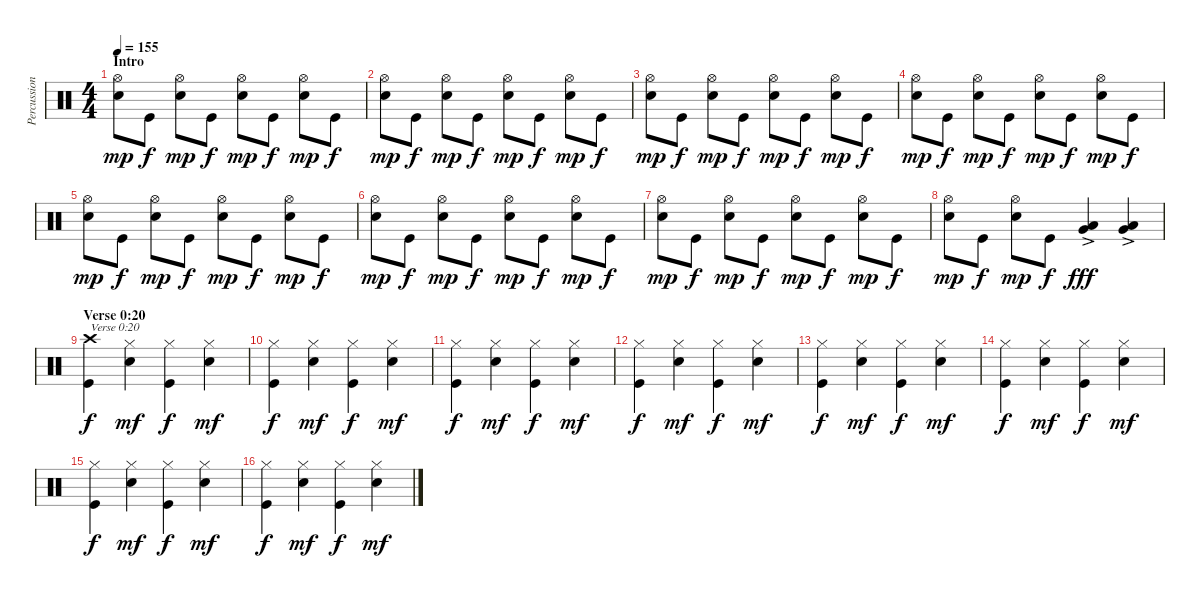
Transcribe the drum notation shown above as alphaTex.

\track ("Percussion" "Percussion") {instrument percussion}
\staff {score}
\articulation defaults
\ts (4 4)
\section ("" "Intro")
\tempo 155
\clef neutral
\ks c
("Electric Snare (hit)" "Hi-Hat (open)").8{dy mp} "Kick (hit)".8{dy f} ("Electric Snare (hit)" "Hi-Hat (open)").8{dy mp} "Kick (hit)".8{dy f} ("Electric Snare (hit)" "Hi-Hat (open)").8{dy mp} "Kick (hit)".8{dy f} ("Electric Snare (hit)" "Hi-Hat (open)").8{dy mp} "Kick (hit)".8{dy f} |
("Electric Snare (hit)" "Hi-Hat (open)").8{dy mp} "Kick (hit)".8{dy f} ("Electric Snare (hit)" "Hi-Hat (open)").8{dy mp} "Kick (hit)".8{dy f} ("Electric Snare (hit)" "Hi-Hat (open)").8{dy mp} "Kick (hit)".8{dy f} ("Electric Snare (hit)" "Hi-Hat (open)").8{dy mp} "Kick (hit)".8{dy f} |
("Electric Snare (hit)" "Hi-Hat (open)").8{dy mp} "Kick (hit)".8{dy f} ("Electric Snare (hit)" "Hi-Hat (open)").8{dy mp} "Kick (hit)".8{dy f} ("Electric Snare (hit)" "Hi-Hat (open)").8{dy mp} "Kick (hit)".8{dy f} ("Electric Snare (hit)" "Hi-Hat (open)").8{dy mp} "Kick (hit)".8{dy f} |
("Electric Snare (hit)" "Hi-Hat (open)").8{dy mp} "Kick (hit)".8{dy f} ("Electric Snare (hit)" "Hi-Hat (open)").8{dy mp} "Kick (hit)".8{dy f} ("Electric Snare (hit)" "Hi-Hat (open)").8{dy mp} "Kick (hit)".8{dy f} ("Electric Snare (hit)" "Hi-Hat (open)").8{dy mp} "Kick (hit)".8{dy f} |
("Electric Snare (hit)" "Hi-Hat (open)").8{dy mp} "Kick (hit)".8{dy f} ("Electric Snare (hit)" "Hi-Hat (open)").8{dy mp} "Kick (hit)".8{dy f} ("Electric Snare (hit)" "Hi-Hat (open)").8{dy mp} "Kick (hit)".8{dy f} ("Electric Snare (hit)" "Hi-Hat (open)").8{dy mp} "Kick (hit)".8{dy f} |
("Electric Snare (hit)" "Hi-Hat (open)").8{dy mp} "Kick (hit)".8{dy f} ("Electric Snare (hit)" "Hi-Hat (open)").8{dy mp} "Kick (hit)".8{dy f} ("Electric Snare (hit)" "Hi-Hat (open)").8{dy mp} "Kick (hit)".8{dy f} ("Electric Snare (hit)" "Hi-Hat (open)").8{dy mp} "Kick (hit)".8{dy f} |
("Electric Snare (hit)" "Hi-Hat (open)").8{dy mp} "Kick (hit)".8{dy f} ("Electric Snare (hit)" "Hi-Hat (open)").8{dy mp} "Kick (hit)".8{dy f} ("Electric Snare (hit)" "Hi-Hat (open)").8{dy mp} "Kick (hit)".8{dy f} ("Electric Snare (hit)" "Hi-Hat (open)").8{dy mp} "Kick (hit)".8{dy f} |
("Electric Snare (hit)" "Hi-Hat (open)").8{dy mp} "Kick (hit)".8{dy f} ("Electric Snare (hit)" "Hi-Hat (open)").8{dy mp} "Kick (hit)".8{dy f} ("Very Low Tom (hit)"{ac} "Low Tom (hit)"{ac}).4{dy fff} ("Very Low Tom (hit)"{ac} "Low Tom (hit)"{ac}).4 |
\section ("" "Verse 0:20")
("Kick (hit)" "Crash high (hit)").4{txt "Verse 0:20" dy f} ("Electric Snare (hit)" "Hi-Hat (closed)").4{dy mf} ("Kick (hit)" "Hi-Hat (closed)").4{dy f} ("Electric Snare (hit)" "Hi-Hat (closed)").4{dy mf} |
("Kick (hit)" "Hi-Hat (closed)").4{dy f} ("Electric Snare (hit)" "Hi-Hat (closed)").4{dy mf} ("Kick (hit)" "Hi-Hat (closed)").4{dy f} ("Electric Snare (hit)" "Hi-Hat (closed)").4{dy mf} |
("Kick (hit)" "Hi-Hat (closed)").4{dy f} ("Electric Snare (hit)" "Hi-Hat (closed)").4{dy mf} ("Kick (hit)" "Hi-Hat (closed)").4{dy f} ("Electric Snare (hit)" "Hi-Hat (closed)").4{dy mf} |
("Kick (hit)" "Hi-Hat (closed)").4{dy f} ("Electric Snare (hit)" "Hi-Hat (closed)").4{dy mf} ("Kick (hit)" "Hi-Hat (closed)").4{dy f} ("Electric Snare (hit)" "Hi-Hat (closed)").4{dy mf} |
("Kick (hit)" "Hi-Hat (closed)").4{dy f} ("Electric Snare (hit)" "Hi-Hat (closed)").4{dy mf} ("Kick (hit)" "Hi-Hat (closed)").4{dy f} ("Electric Snare (hit)" "Hi-Hat (closed)").4{dy mf} |
("Kick (hit)" "Hi-Hat (closed)").4{dy f} ("Electric Snare (hit)" "Hi-Hat (closed)").4{dy mf} ("Kick (hit)" "Hi-Hat (closed)").4{dy f} ("Electric Snare (hit)" "Hi-Hat (closed)").4{dy mf} |
("Kick (hit)" "Hi-Hat (closed)").4{dy f} ("Electric Snare (hit)" "Hi-Hat (closed)").4{dy mf} ("Kick (hit)" "Hi-Hat (closed)").4{dy f} ("Electric Snare (hit)" "Hi-Hat (closed)").4{dy mf} |
("Kick (hit)" "Hi-Hat (closed)").4{dy f} ("Electric Snare (hit)" "Hi-Hat (closed)").4{dy mf} ("Kick (hit)" "Hi-Hat (closed)").4{dy f} ("Electric Snare (hit)" "Hi-Hat (closed)").4{dy mf}
